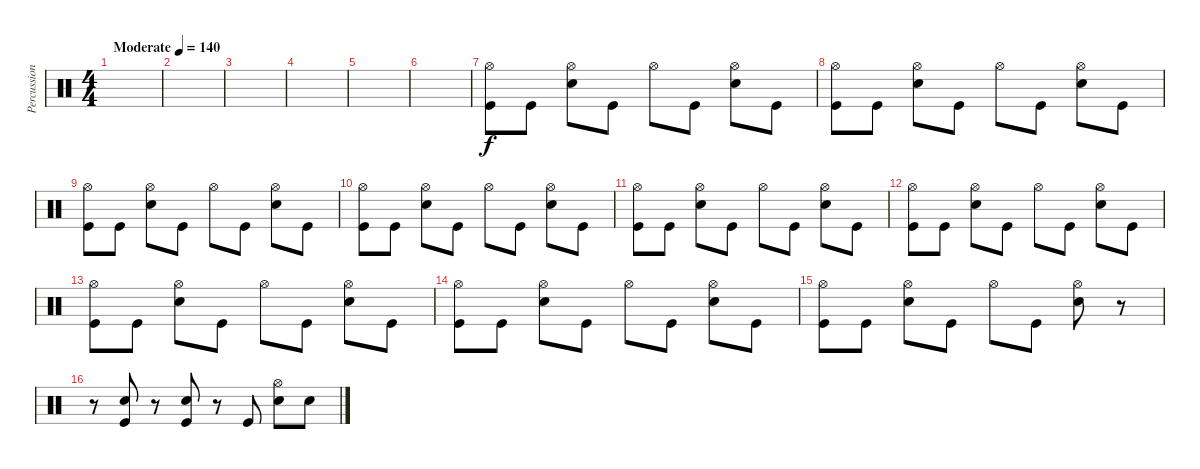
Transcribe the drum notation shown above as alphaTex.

\track ("Percussion" "Percussion") {instrument percussion}
\staff {score}
\articulation defaults
\ts (4 4)
\tempo (140 "Moderate")
\clef neutral
\ks c
|
|
|
|
|
|
("Hi-Hat (open)" "Kick (hit)").8 "Kick (hit)".8 ("Hi-Hat (open)" "Snare (hit) 2").8 "Kick (hit)".8 "Hi-Hat (open)".8 "Kick (hit)".8 ("Hi-Hat (open)" "Snare (hit) 2").8 "Kick (hit)".8 |
("Hi-Hat (open)" "Kick (hit)").8 "Kick (hit)".8 ("Hi-Hat (open)" "Snare (hit) 2").8 "Kick (hit)".8 "Hi-Hat (open)".8 "Kick (hit)".8 ("Hi-Hat (open)" "Snare (hit) 2").8 "Kick (hit)".8 |
("Hi-Hat (open)" "Kick (hit)").8 "Kick (hit)".8 ("Hi-Hat (open)" "Snare (hit) 2").8 "Kick (hit)".8 "Hi-Hat (open)".8 "Kick (hit)".8 ("Hi-Hat (open)" "Snare (hit) 2").8 "Kick (hit)".8 |
("Hi-Hat (open)" "Kick (hit)").8 "Kick (hit)".8 ("Hi-Hat (open)" "Snare (hit) 2").8 "Kick (hit)".8 "Hi-Hat (open)".8 "Kick (hit)".8 ("Hi-Hat (open)" "Snare (hit) 2").8 "Kick (hit)".8 |
("Hi-Hat (open)" "Kick (hit)").8 "Kick (hit)".8 ("Hi-Hat (open)" "Snare (hit) 2").8 "Kick (hit)".8 "Hi-Hat (open)".8 "Kick (hit)".8 ("Hi-Hat (open)" "Snare (hit) 2").8 "Kick (hit)".8 |
("Hi-Hat (open)" "Kick (hit)").8 "Kick (hit)".8 ("Hi-Hat (open)" "Snare (hit) 2").8 "Kick (hit)".8 "Hi-Hat (open)".8 "Kick (hit)".8 ("Hi-Hat (open)" "Snare (hit) 2").8 "Kick (hit)".8 |
("Hi-Hat (open)" "Kick (hit)").8 "Kick (hit)".8 ("Hi-Hat (open)" "Snare (hit) 2").8 "Kick (hit)".8 "Hi-Hat (open)".8 "Kick (hit)".8 ("Hi-Hat (open)" "Snare (hit) 2").8 "Kick (hit)".8 |
("Hi-Hat (open)" "Kick (hit)").8 "Kick (hit)".8 ("Hi-Hat (open)" "Snare (hit) 2").8 "Kick (hit)".8 "Hi-Hat (open)".8 "Kick (hit)".8 ("Hi-Hat (open)" "Snare (hit) 2").8 "Kick (hit)".8 |
("Hi-Hat (open)" "Kick (hit)").8 "Kick (hit)".8 ("Hi-Hat (open)" "Snare (hit) 2").8 "Kick (hit)".8 "Hi-Hat (open)".8 "Kick (hit)".8 ("Hi-Hat (open)" "Snare (hit) 2").8 r.8 |
r.8 ("Snare (hit) 2" "Kick (hit)").8 r.8 ("Snare (hit) 2" "Kick (hit)").8 r.8 "Kick (hit)".8 ("Hi-Hat (open)" "Snare (hit) 2").8 "Snare (hit) 2".8
